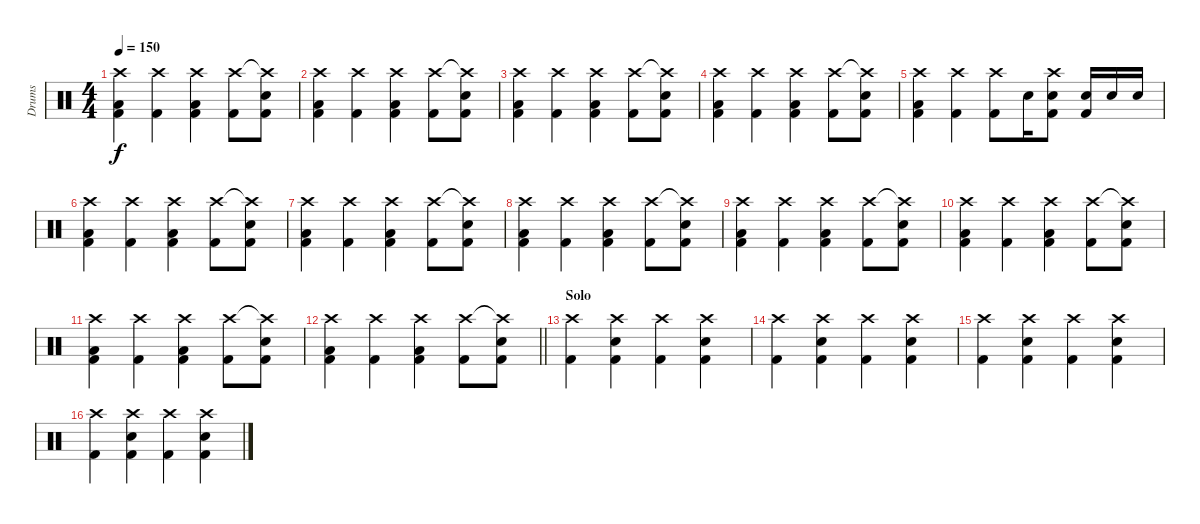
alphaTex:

\track ("Drums" "Drums") {instrument percussion}
\staff {score}
\articulation defaults
\ts (4 4)
\tempo 150
\clef neutral
\ks c
("Crash high (hit)" "Kick (hit) 2" "Low Tom (hit)").4{dy f} ("Crash high (hit)" "Kick (hit) 2").4 ("Crash high (hit)" "Kick (hit) 2" "Low Tom (hit)").4 ("Crash high (hit)" "Kick (hit) 2").8 ("Crash high (hit)"{t} "Kick (hit) 2" "Electric Snare (hit)").8 |
("Crash high (hit)" "Kick (hit) 2" "Low Tom (hit)").4 ("Crash high (hit)" "Kick (hit) 2").4 ("Crash high (hit)" "Kick (hit) 2" "Low Tom (hit)").4 ("Crash high (hit)" "Kick (hit) 2").8 ("Crash high (hit)"{t} "Kick (hit) 2" "Electric Snare (hit)").8 |
("Crash high (hit)" "Kick (hit) 2" "Low Tom (hit)").4 ("Crash high (hit)" "Kick (hit) 2").4 ("Crash high (hit)" "Kick (hit) 2" "Low Tom (hit)").4 ("Crash high (hit)" "Kick (hit) 2").8 ("Crash high (hit)"{t} "Kick (hit) 2" "Electric Snare (hit)").8 |
("Crash high (hit)" "Kick (hit) 2" "Low Tom (hit)").4 ("Crash high (hit)" "Kick (hit) 2").4 ("Crash high (hit)" "Kick (hit) 2" "Low Tom (hit)").4 ("Crash high (hit)" "Kick (hit) 2").8 ("Crash high (hit)"{t} "Kick (hit) 2" "Electric Snare (hit)").8 |
("Crash high (hit)" "Kick (hit) 2" "Low Tom (hit)").4 ("Crash high (hit)" "Kick (hit) 2").4 ("Crash high (hit)" "Kick (hit) 2").8 "Electric Snare (hit)".16 ("Crash high (hit)" "Kick (hit) 2" "Electric Snare (hit)").8 ("Kick (hit) 2" "Electric Snare (hit)").16 "Electric Snare (hit)".16 "Electric Snare (hit)".16 |
("Crash high (hit)" "Kick (hit) 2" "Low Tom (hit)").4 ("Crash high (hit)" "Kick (hit) 2").4 ("Crash high (hit)" "Kick (hit) 2" "Low Tom (hit)").4 ("Crash high (hit)" "Kick (hit) 2").8 ("Crash high (hit)"{t} "Kick (hit) 2" "Electric Snare (hit)").8 |
("Crash high (hit)" "Kick (hit) 2" "Low Tom (hit)").4 ("Crash high (hit)" "Kick (hit) 2").4 ("Crash high (hit)" "Kick (hit) 2" "Low Tom (hit)").4 ("Crash high (hit)" "Kick (hit) 2").8 ("Crash high (hit)"{t} "Kick (hit) 2" "Electric Snare (hit)").8 |
("Crash high (hit)" "Kick (hit) 2" "Low Tom (hit)").4 ("Crash high (hit)" "Kick (hit) 2").4 ("Crash high (hit)" "Kick (hit) 2" "Low Tom (hit)").4 ("Crash high (hit)" "Kick (hit) 2").8 ("Crash high (hit)"{t} "Kick (hit) 2" "Electric Snare (hit)").8 |
("Crash high (hit)" "Kick (hit) 2" "Low Tom (hit)").4 ("Crash high (hit)" "Kick (hit) 2").4 ("Crash high (hit)" "Kick (hit) 2" "Low Tom (hit)").4 ("Crash high (hit)" "Kick (hit) 2").8 ("Crash high (hit)"{t} "Kick (hit) 2" "Electric Snare (hit)").8 |
("Crash high (hit)" "Kick (hit) 2" "Low Tom (hit)").4 ("Crash high (hit)" "Kick (hit) 2").4 ("Crash high (hit)" "Kick (hit) 2" "Low Tom (hit)").4 ("Crash high (hit)" "Kick (hit) 2").8 ("Crash high (hit)"{t} "Kick (hit) 2" "Electric Snare (hit)").8 |
("Crash high (hit)" "Kick (hit) 2" "Low Tom (hit)").4 ("Crash high (hit)" "Kick (hit) 2").4 ("Crash high (hit)" "Kick (hit) 2" "Low Tom (hit)").4 ("Crash high (hit)" "Kick (hit) 2").8 ("Crash high (hit)"{t} "Kick (hit) 2" "Electric Snare (hit)").8 |
\barLineRight lightlight
("Crash high (hit)" "Kick (hit) 2" "Low Tom (hit)").4 ("Crash high (hit)" "Kick (hit) 2").4 ("Crash high (hit)" "Kick (hit) 2" "Low Tom (hit)").4 ("Crash high (hit)" "Kick (hit) 2").8 ("Crash high (hit)"{t} "Kick (hit) 2" "Electric Snare (hit)").8 |
\section ("" "Solo")
("Crash high (hit)" "Kick (hit) 2").4 ("Crash high (hit)" "Kick (hit) 2" "Electric Snare (hit)").4 ("Crash high (hit)" "Kick (hit) 2").4 ("Crash high (hit)" "Kick (hit) 2" "Electric Snare (hit)").4 |
("Crash high (hit)" "Kick (hit) 2").4 ("Crash high (hit)" "Kick (hit) 2" "Electric Snare (hit)").4 ("Crash high (hit)" "Kick (hit) 2").4 ("Crash high (hit)" "Kick (hit) 2" "Electric Snare (hit)").4 |
("Crash high (hit)" "Kick (hit) 2").4 ("Crash high (hit)" "Kick (hit) 2" "Electric Snare (hit)").4 ("Crash high (hit)" "Kick (hit) 2").4 ("Crash high (hit)" "Kick (hit) 2" "Electric Snare (hit)").4 |
("Crash high (hit)" "Kick (hit) 2").4 ("Crash high (hit)" "Kick (hit) 2" "Electric Snare (hit)").4 ("Crash high (hit)" "Kick (hit) 2").4 ("Crash high (hit)" "Kick (hit) 2" "Electric Snare (hit)").4
